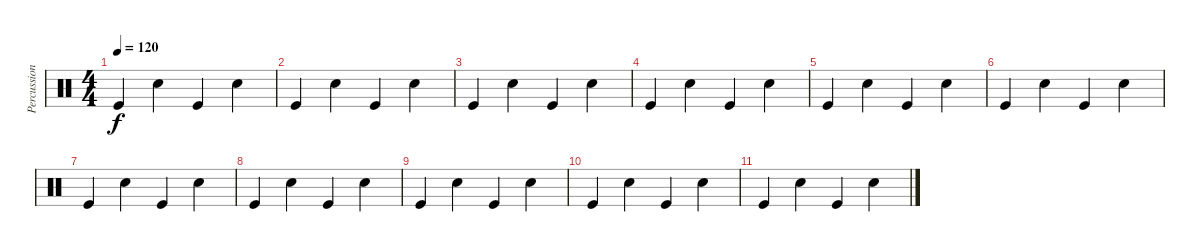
\track ("Percussion" "Percussion") {instrument percussion}
\staff {score}
\articulation defaults
\ts (4 4)
\tempo 120
\clef neutral
\ks c "Kick (hit)".4{dy f} "Snare (hit) 2".4 "Kick (hit)".4 "Snare (hit) 2".4
|
"Kick (hit)".4 "Snare (hit) 2".4 "Kick (hit)".4 "Snare (hit) 2".4 |
"Kick (hit)".4 "Snare (hit) 2".4 "Kick (hit)".4 "Snare (hit) 2".4 |
"Kick (hit)".4 "Snare (hit) 2".4 "Kick (hit)".4 "Snare (hit) 2".4 |
"Kick (hit)".4 "Snare (hit) 2".4 "Kick (hit)".4 "Snare (hit) 2".4 |
"Kick (hit)".4 "Snare (hit) 2".4 "Kick (hit)".4 "Snare (hit) 2".4 |
"Kick (hit)".4 "Snare (hit) 2".4 "Kick (hit)".4 "Snare (hit) 2".4 |
"Kick (hit)".4 "Snare (hit) 2".4 "Kick (hit)".4 "Snare (hit) 2".4 |
"Kick (hit)".4 "Snare (hit) 2".4 "Kick (hit)".4 "Snare (hit) 2".4 |
"Kick (hit)".4 "Snare (hit) 2".4 "Kick (hit)".4 "Snare (hit) 2".4 |
"Kick (hit)".4 "Snare (hit) 2".4 "Kick (hit)".4 "Snare (hit) 2".4
